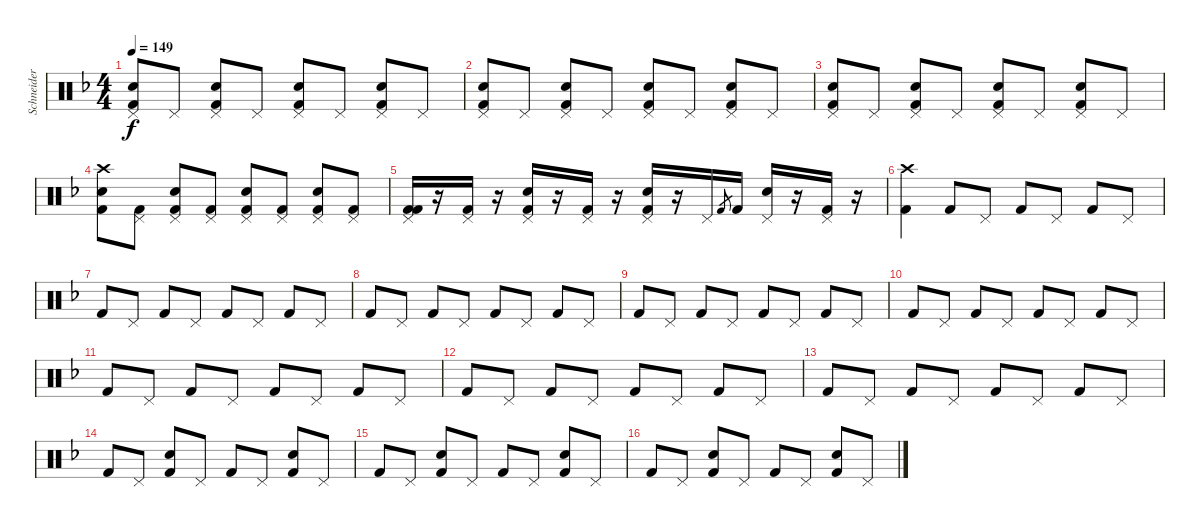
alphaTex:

\track ("Schneider" "Schneider") {instrument percussion}
\staff {score}
\articulation defaults
\ts (4 4)
\tempo 149
\clef neutral
\ks dminor
("Pedal Hi-Hat (hit)" "Snare (hit) 2" "Kick (hit) 2").8{dy f} "Pedal Hi-Hat (hit)".8 ("Pedal Hi-Hat (hit)" "Snare (hit) 2" "Kick (hit) 2").8 "Pedal Hi-Hat (hit)".8 ("Pedal Hi-Hat (hit)" "Snare (hit) 2" "Kick (hit) 2").8 "Pedal Hi-Hat (hit)".8 ("Pedal Hi-Hat (hit)" "Snare (hit) 2" "Kick (hit) 2").8 "Pedal Hi-Hat (hit)".8 |
("Pedal Hi-Hat (hit)" "Snare (hit) 2" "Kick (hit) 2").8 "Pedal Hi-Hat (hit)".8 ("Pedal Hi-Hat (hit)" "Snare (hit) 2" "Kick (hit) 2").8 "Pedal Hi-Hat (hit)".8 ("Pedal Hi-Hat (hit)" "Snare (hit) 2" "Kick (hit) 2").8 "Pedal Hi-Hat (hit)".8 ("Pedal Hi-Hat (hit)" "Snare (hit) 2" "Kick (hit) 2").8 "Pedal Hi-Hat (hit)".8 |
("Pedal Hi-Hat (hit)" "Snare (hit) 2" "Kick (hit) 2").8 "Pedal Hi-Hat (hit)".8 ("Pedal Hi-Hat (hit)" "Snare (hit) 2" "Kick (hit) 2").8 "Pedal Hi-Hat (hit)".8 ("Pedal Hi-Hat (hit)" "Snare (hit) 2" "Kick (hit) 2").8 "Pedal Hi-Hat (hit)".8 ("Pedal Hi-Hat (hit)" "Snare (hit) 2" "Kick (hit) 2").8 "Pedal Hi-Hat (hit)".8 |
("Crash high (hit)" "Snare (hit) 2" "Kick (hit) 2").8 ("Pedal Hi-Hat (hit)" "Kick (hit) 2").8 ("Pedal Hi-Hat (hit)" "Snare (hit) 2" "Kick (hit) 2").8 ("Pedal Hi-Hat (hit)" "Kick (hit) 2").8 ("Pedal Hi-Hat (hit)" "Snare (hit) 2" "Kick (hit) 2").8 ("Pedal Hi-Hat (hit)" "Kick (hit) 2").8 ("Pedal Hi-Hat (hit)" "Snare (hit) 2" "Kick (hit) 2").8 ("Pedal Hi-Hat (hit)" "Kick (hit) 2").8 |
("Pedal Hi-Hat (hit)" "Kick (hit) 2" "Kick (hit) 2").16 r.16 ("Pedal Hi-Hat (hit)" "Kick (hit) 2").16 r.16 ("Pedal Hi-Hat (hit)" "Snare (hit) 2" "Kick (hit) 2").16 r.16 ("Pedal Hi-Hat (hit)" "Kick (hit) 2").16 r.16 ("Pedal Hi-Hat (hit)" "Snare (hit) 2" "Kick (hit) 2").16 r.16 "Pedal Hi-Hat (hit)".16 "Kick (hit) 2".8{gr} "Kick (hit) 2".16 ("Pedal Hi-Hat (hit)" "Snare (hit) 2").16 r.16 ("Pedal Hi-Hat (hit)" "Kick (hit) 2").16 r.16 |
("Crash high (hit)" "Kick (hit) 2").4 "Kick (hit) 2".8 "Pedal Hi-Hat (hit)".8 "Kick (hit) 2".8 "Pedal Hi-Hat (hit)".8 "Kick (hit) 2".8 "Pedal Hi-Hat (hit)".8 |
"Kick (hit) 2".8 "Pedal Hi-Hat (hit)".8 "Kick (hit) 2".8 "Pedal Hi-Hat (hit)".8 "Kick (hit) 2".8 "Pedal Hi-Hat (hit)".8 "Kick (hit) 2".8 "Pedal Hi-Hat (hit)".8 |
"Kick (hit) 2".8 "Pedal Hi-Hat (hit)".8 "Kick (hit) 2".8 "Pedal Hi-Hat (hit)".8 "Kick (hit) 2".8 "Pedal Hi-Hat (hit)".8 "Kick (hit) 2".8 "Pedal Hi-Hat (hit)".8 |
"Kick (hit) 2".8 "Pedal Hi-Hat (hit)".8 "Kick (hit) 2".8 "Pedal Hi-Hat (hit)".8 "Kick (hit) 2".8 "Pedal Hi-Hat (hit)".8 "Kick (hit) 2".8 "Pedal Hi-Hat (hit)".8 |
"Kick (hit) 2".8 "Pedal Hi-Hat (hit)".8 "Kick (hit) 2".8 "Pedal Hi-Hat (hit)".8 "Kick (hit) 2".8 "Pedal Hi-Hat (hit)".8 "Kick (hit) 2".8 "Pedal Hi-Hat (hit)".8 |
"Kick (hit) 2".8 "Pedal Hi-Hat (hit)".8 "Kick (hit) 2".8 "Pedal Hi-Hat (hit)".8 "Kick (hit) 2".8 "Pedal Hi-Hat (hit)".8 "Kick (hit) 2".8 "Pedal Hi-Hat (hit)".8 |
"Kick (hit) 2".8 "Pedal Hi-Hat (hit)".8 "Kick (hit) 2".8 "Pedal Hi-Hat (hit)".8 "Kick (hit) 2".8 "Pedal Hi-Hat (hit)".8 "Kick (hit) 2".8 "Pedal Hi-Hat (hit)".8 |
"Kick (hit) 2".8 "Pedal Hi-Hat (hit)".8 "Kick (hit) 2".8 "Pedal Hi-Hat (hit)".8 "Kick (hit) 2".8 "Pedal Hi-Hat (hit)".8 "Kick (hit) 2".8 "Pedal Hi-Hat (hit)".8 |
"Kick (hit) 2".8 "Pedal Hi-Hat (hit)".8 ("Snare (hit) 2" "Kick (hit) 2").8 "Pedal Hi-Hat (hit)".8 "Kick (hit) 2".8 "Pedal Hi-Hat (hit)".8 ("Snare (hit) 2" "Kick (hit) 2").8 "Pedal Hi-Hat (hit)".8 |
"Kick (hit) 2".8 "Pedal Hi-Hat (hit)".8 ("Snare (hit) 2" "Kick (hit) 2").8 "Pedal Hi-Hat (hit)".8 "Kick (hit) 2".8 "Pedal Hi-Hat (hit)".8 ("Snare (hit) 2" "Kick (hit) 2").8 "Pedal Hi-Hat (hit)".8 |
"Kick (hit) 2".8 "Pedal Hi-Hat (hit)".8 ("Snare (hit) 2" "Kick (hit) 2").8 "Pedal Hi-Hat (hit)".8 "Kick (hit) 2".8 "Pedal Hi-Hat (hit)".8 ("Snare (hit) 2" "Kick (hit) 2").8 "Pedal Hi-Hat (hit)".8
